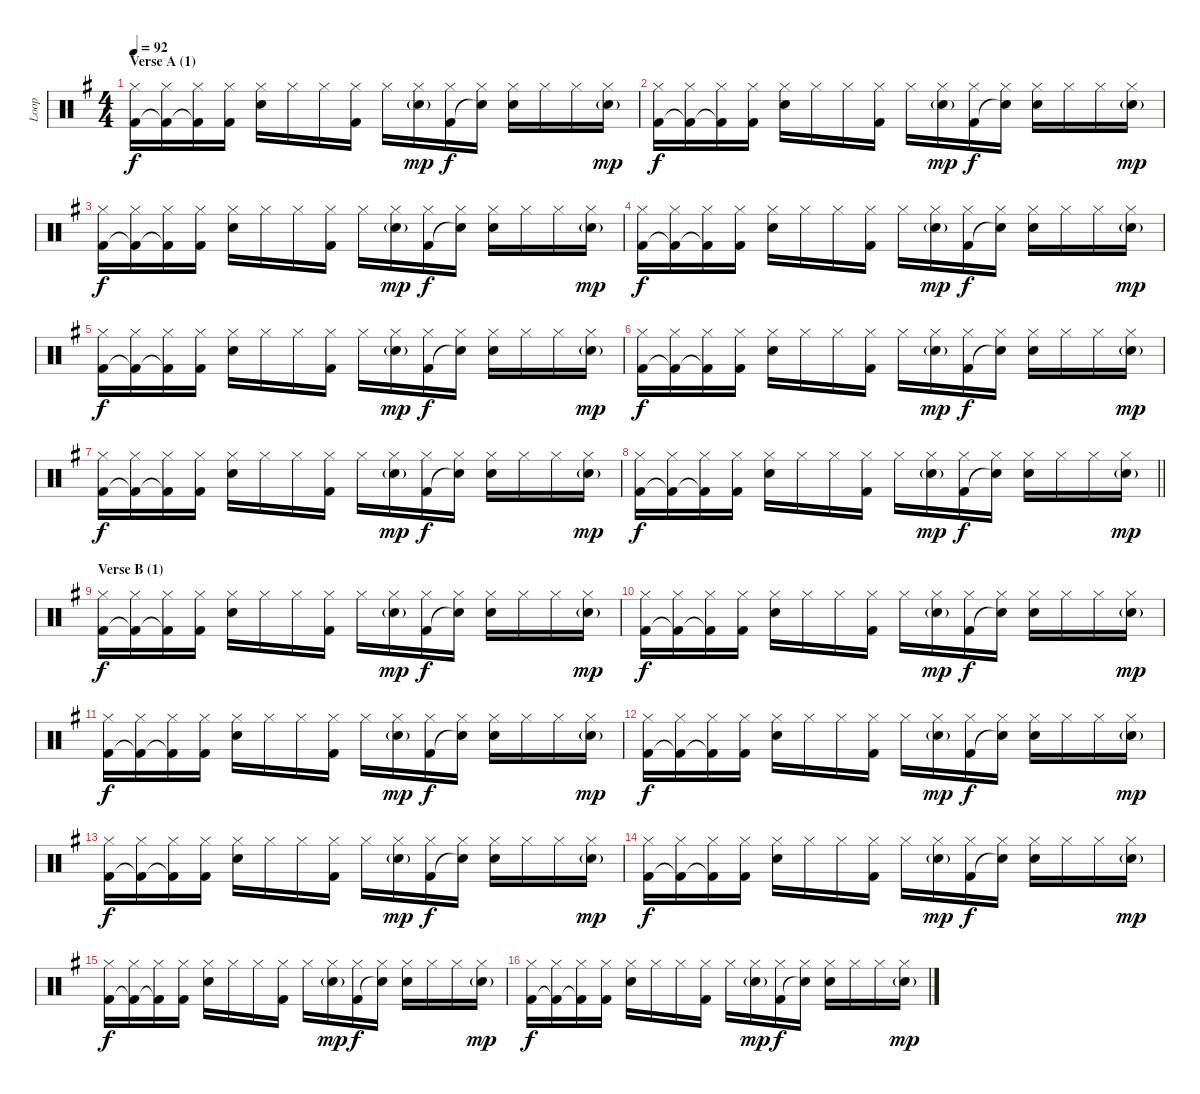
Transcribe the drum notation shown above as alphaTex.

\track ("Loop" "Loop") {instrument percussion}
\staff {score}
\articulation defaults
\ts (4 4)
\section ("" "Verse A (1)")
\tempo 92
\clef neutral
\ks g
("Hi-Hat (closed)" "Kick (hit) 2").16{dy f} ("Hi-Hat (closed)" "Kick (hit) 2"{t}).16 ("Hi-Hat (closed)" "Kick (hit) 2"{t}).16 ("Hi-Hat (closed)" "Kick (hit) 2").16 ("Hi-Hat (closed)" "Electric Snare (hit)").16 "Hi-Hat (closed)".16 "Hi-Hat (closed)".16 ("Hi-Hat (closed)" "Kick (hit) 2").16 "Hi-Hat (closed)".16 ("Hi-Hat (closed)" "Electric Snare (hit)"{g}).16{dy mp} ("Hi-Hat (closed)" "Kick (hit) 2").16{dy f} ("Hi-Hat (closed)" "Snare (hit)"{t}).16 ("Hi-Hat (closed)" "Electric Snare (hit)").16 "Hi-Hat (closed)".16 "Hi-Hat (closed)".16 ("Hi-Hat (closed)" "Electric Snare (hit)"{g}).16{dy mp} |
("Hi-Hat (closed)" "Kick (hit) 2").16{dy f} ("Hi-Hat (closed)" "Kick (hit) 2"{t}).16 ("Hi-Hat (closed)" "Kick (hit) 2"{t}).16 ("Hi-Hat (closed)" "Kick (hit) 2").16 ("Hi-Hat (closed)" "Electric Snare (hit)").16 "Hi-Hat (closed)".16 "Hi-Hat (closed)".16 ("Hi-Hat (closed)" "Kick (hit) 2").16 "Hi-Hat (closed)".16 ("Hi-Hat (closed)" "Electric Snare (hit)"{g}).16{dy mp} ("Hi-Hat (closed)" "Kick (hit) 2").16{dy f} ("Hi-Hat (closed)" "Snare (hit)"{t}).16 ("Hi-Hat (closed)" "Electric Snare (hit)").16 "Hi-Hat (closed)".16 "Hi-Hat (closed)".16 ("Hi-Hat (closed)" "Electric Snare (hit)"{g}).16{dy mp} |
("Hi-Hat (closed)" "Kick (hit) 2").16{dy f} ("Hi-Hat (closed)" "Kick (hit) 2"{t}).16 ("Hi-Hat (closed)" "Kick (hit) 2"{t}).16 ("Hi-Hat (closed)" "Kick (hit) 2").16 ("Hi-Hat (closed)" "Electric Snare (hit)").16 "Hi-Hat (closed)".16 "Hi-Hat (closed)".16 ("Hi-Hat (closed)" "Kick (hit) 2").16 "Hi-Hat (closed)".16 ("Hi-Hat (closed)" "Electric Snare (hit)"{g}).16{dy mp} ("Hi-Hat (closed)" "Kick (hit) 2").16{dy f} ("Hi-Hat (closed)" "Snare (hit)"{t}).16 ("Hi-Hat (closed)" "Electric Snare (hit)").16 "Hi-Hat (closed)".16 "Hi-Hat (closed)".16 ("Hi-Hat (closed)" "Electric Snare (hit)"{g}).16{dy mp} |
("Hi-Hat (closed)" "Kick (hit) 2").16{dy f} ("Hi-Hat (closed)" "Kick (hit) 2"{t}).16 ("Hi-Hat (closed)" "Kick (hit) 2"{t}).16 ("Hi-Hat (closed)" "Kick (hit) 2").16 ("Hi-Hat (closed)" "Electric Snare (hit)").16 "Hi-Hat (closed)".16 "Hi-Hat (closed)".16 ("Hi-Hat (closed)" "Kick (hit) 2").16 "Hi-Hat (closed)".16 ("Hi-Hat (closed)" "Electric Snare (hit)"{g}).16{dy mp} ("Hi-Hat (closed)" "Kick (hit) 2").16{dy f} ("Hi-Hat (closed)" "Snare (hit)"{t}).16 ("Hi-Hat (closed)" "Electric Snare (hit)").16 "Hi-Hat (closed)".16 "Hi-Hat (closed)".16 ("Hi-Hat (closed)" "Electric Snare (hit)"{g}).16{dy mp} |
("Hi-Hat (closed)" "Kick (hit) 2").16{dy f} ("Hi-Hat (closed)" "Kick (hit) 2"{t}).16 ("Hi-Hat (closed)" "Kick (hit) 2"{t}).16 ("Hi-Hat (closed)" "Kick (hit) 2").16 ("Hi-Hat (closed)" "Electric Snare (hit)").16 "Hi-Hat (closed)".16 "Hi-Hat (closed)".16 ("Hi-Hat (closed)" "Kick (hit) 2").16 "Hi-Hat (closed)".16 ("Hi-Hat (closed)" "Electric Snare (hit)"{g}).16{dy mp} ("Hi-Hat (closed)" "Kick (hit) 2").16{dy f} ("Hi-Hat (closed)" "Snare (hit)"{t}).16 ("Hi-Hat (closed)" "Electric Snare (hit)").16 "Hi-Hat (closed)".16 "Hi-Hat (closed)".16 ("Hi-Hat (closed)" "Electric Snare (hit)"{g}).16{dy mp} |
("Hi-Hat (closed)" "Kick (hit) 2").16{dy f} ("Hi-Hat (closed)" "Kick (hit) 2"{t}).16 ("Hi-Hat (closed)" "Kick (hit) 2"{t}).16 ("Hi-Hat (closed)" "Kick (hit) 2").16 ("Hi-Hat (closed)" "Electric Snare (hit)").16 "Hi-Hat (closed)".16 "Hi-Hat (closed)".16 ("Hi-Hat (closed)" "Kick (hit) 2").16 "Hi-Hat (closed)".16 ("Hi-Hat (closed)" "Electric Snare (hit)"{g}).16{dy mp} ("Hi-Hat (closed)" "Kick (hit) 2").16{dy f} ("Hi-Hat (closed)" "Snare (hit)"{t}).16 ("Hi-Hat (closed)" "Electric Snare (hit)").16 "Hi-Hat (closed)".16 "Hi-Hat (closed)".16 ("Hi-Hat (closed)" "Electric Snare (hit)"{g}).16{dy mp} |
("Hi-Hat (closed)" "Kick (hit) 2").16{dy f} ("Hi-Hat (closed)" "Kick (hit) 2"{t}).16 ("Hi-Hat (closed)" "Kick (hit) 2"{t}).16 ("Hi-Hat (closed)" "Kick (hit) 2").16 ("Hi-Hat (closed)" "Electric Snare (hit)").16 "Hi-Hat (closed)".16 "Hi-Hat (closed)".16 ("Hi-Hat (closed)" "Kick (hit) 2").16 "Hi-Hat (closed)".16 ("Hi-Hat (closed)" "Electric Snare (hit)"{g}).16{dy mp} ("Hi-Hat (closed)" "Kick (hit) 2").16{dy f} ("Hi-Hat (closed)" "Snare (hit)"{t}).16 ("Hi-Hat (closed)" "Electric Snare (hit)").16 "Hi-Hat (closed)".16 "Hi-Hat (closed)".16 ("Hi-Hat (closed)" "Electric Snare (hit)"{g}).16{dy mp} |
\barLineRight lightlight
("Hi-Hat (closed)" "Kick (hit) 2").16{dy f} ("Hi-Hat (closed)" "Kick (hit) 2"{t}).16 ("Hi-Hat (closed)" "Kick (hit) 2"{t}).16 ("Hi-Hat (closed)" "Kick (hit) 2").16 ("Hi-Hat (closed)" "Electric Snare (hit)").16 "Hi-Hat (closed)".16 "Hi-Hat (closed)".16 ("Hi-Hat (closed)" "Kick (hit) 2").16 "Hi-Hat (closed)".16 ("Hi-Hat (closed)" "Electric Snare (hit)"{g}).16{dy mp} ("Hi-Hat (closed)" "Kick (hit) 2").16{dy f} ("Hi-Hat (closed)" "Snare (hit)"{t}).16 ("Hi-Hat (closed)" "Electric Snare (hit)").16 "Hi-Hat (closed)".16 "Hi-Hat (closed)".16 ("Hi-Hat (closed)" "Electric Snare (hit)"{g}).16{dy mp} |
\section ("" "Verse B (1)")
("Hi-Hat (closed)" "Kick (hit) 2").16{dy f} ("Hi-Hat (closed)" "Kick (hit) 2"{t}).16 ("Hi-Hat (closed)" "Kick (hit) 2"{t}).16 ("Hi-Hat (closed)" "Kick (hit) 2").16 ("Hi-Hat (closed)" "Electric Snare (hit)").16 "Hi-Hat (closed)".16 "Hi-Hat (closed)".16 ("Hi-Hat (closed)" "Kick (hit) 2").16 "Hi-Hat (closed)".16 ("Hi-Hat (closed)" "Electric Snare (hit)"{g}).16{dy mp} ("Hi-Hat (closed)" "Kick (hit) 2").16{dy f} ("Hi-Hat (closed)" "Snare (hit)"{t}).16 ("Hi-Hat (closed)" "Electric Snare (hit)").16 "Hi-Hat (closed)".16 "Hi-Hat (closed)".16 ("Hi-Hat (closed)" "Electric Snare (hit)"{g}).16{dy mp} |
("Hi-Hat (closed)" "Kick (hit) 2").16{dy f} ("Hi-Hat (closed)" "Kick (hit) 2"{t}).16 ("Hi-Hat (closed)" "Kick (hit) 2"{t}).16 ("Hi-Hat (closed)" "Kick (hit) 2").16 ("Hi-Hat (closed)" "Electric Snare (hit)").16 "Hi-Hat (closed)".16 "Hi-Hat (closed)".16 ("Hi-Hat (closed)" "Kick (hit) 2").16 "Hi-Hat (closed)".16 ("Hi-Hat (closed)" "Electric Snare (hit)"{g}).16{dy mp} ("Hi-Hat (closed)" "Kick (hit) 2").16{dy f} ("Hi-Hat (closed)" "Snare (hit)"{t}).16 ("Hi-Hat (closed)" "Electric Snare (hit)").16 "Hi-Hat (closed)".16 "Hi-Hat (closed)".16 ("Hi-Hat (closed)" "Electric Snare (hit)"{g}).16{dy mp} |
("Hi-Hat (closed)" "Kick (hit) 2").16{dy f} ("Hi-Hat (closed)" "Kick (hit) 2"{t}).16 ("Hi-Hat (closed)" "Kick (hit) 2"{t}).16 ("Hi-Hat (closed)" "Kick (hit) 2").16 ("Hi-Hat (closed)" "Electric Snare (hit)").16 "Hi-Hat (closed)".16 "Hi-Hat (closed)".16 ("Hi-Hat (closed)" "Kick (hit) 2").16 "Hi-Hat (closed)".16 ("Hi-Hat (closed)" "Electric Snare (hit)"{g}).16{dy mp} ("Hi-Hat (closed)" "Kick (hit) 2").16{dy f} ("Hi-Hat (closed)" "Snare (hit)"{t}).16 ("Hi-Hat (closed)" "Electric Snare (hit)").16 "Hi-Hat (closed)".16 "Hi-Hat (closed)".16 ("Hi-Hat (closed)" "Electric Snare (hit)"{g}).16{dy mp} |
("Hi-Hat (closed)" "Kick (hit) 2").16{dy f} ("Hi-Hat (closed)" "Kick (hit) 2"{t}).16 ("Hi-Hat (closed)" "Kick (hit) 2"{t}).16 ("Hi-Hat (closed)" "Kick (hit) 2").16 ("Hi-Hat (closed)" "Electric Snare (hit)").16 "Hi-Hat (closed)".16 "Hi-Hat (closed)".16 ("Hi-Hat (closed)" "Kick (hit) 2").16 "Hi-Hat (closed)".16 ("Hi-Hat (closed)" "Electric Snare (hit)"{g}).16{dy mp} ("Hi-Hat (closed)" "Kick (hit) 2").16{dy f} ("Hi-Hat (closed)" "Snare (hit)"{t}).16 ("Hi-Hat (closed)" "Electric Snare (hit)").16 "Hi-Hat (closed)".16 "Hi-Hat (closed)".16 ("Hi-Hat (closed)" "Electric Snare (hit)"{g}).16{dy mp} |
("Hi-Hat (closed)" "Kick (hit) 2").16{dy f} ("Hi-Hat (closed)" "Kick (hit) 2"{t}).16 ("Hi-Hat (closed)" "Kick (hit) 2"{t}).16 ("Hi-Hat (closed)" "Kick (hit) 2").16 ("Hi-Hat (closed)" "Electric Snare (hit)").16 "Hi-Hat (closed)".16 "Hi-Hat (closed)".16 ("Hi-Hat (closed)" "Kick (hit) 2").16 "Hi-Hat (closed)".16 ("Hi-Hat (closed)" "Electric Snare (hit)"{g}).16{dy mp} ("Hi-Hat (closed)" "Kick (hit) 2").16{dy f} ("Hi-Hat (closed)" "Snare (hit)"{t}).16 ("Hi-Hat (closed)" "Electric Snare (hit)").16 "Hi-Hat (closed)".16 "Hi-Hat (closed)".16 ("Hi-Hat (closed)" "Electric Snare (hit)"{g}).16{dy mp} |
("Hi-Hat (closed)" "Kick (hit) 2").16{dy f} ("Hi-Hat (closed)" "Kick (hit) 2"{t}).16 ("Hi-Hat (closed)" "Kick (hit) 2"{t}).16 ("Hi-Hat (closed)" "Kick (hit) 2").16 ("Hi-Hat (closed)" "Electric Snare (hit)").16 "Hi-Hat (closed)".16 "Hi-Hat (closed)".16 ("Hi-Hat (closed)" "Kick (hit) 2").16 "Hi-Hat (closed)".16 ("Hi-Hat (closed)" "Electric Snare (hit)"{g}).16{dy mp} ("Hi-Hat (closed)" "Kick (hit) 2").16{dy f} ("Hi-Hat (closed)" "Snare (hit)"{t}).16 ("Hi-Hat (closed)" "Electric Snare (hit)").16 "Hi-Hat (closed)".16 "Hi-Hat (closed)".16 ("Hi-Hat (closed)" "Electric Snare (hit)"{g}).16{dy mp} |
("Hi-Hat (closed)" "Kick (hit) 2").16{dy f} ("Hi-Hat (closed)" "Kick (hit) 2"{t}).16 ("Hi-Hat (closed)" "Kick (hit) 2"{t}).16 ("Hi-Hat (closed)" "Kick (hit) 2").16 ("Hi-Hat (closed)" "Electric Snare (hit)").16 "Hi-Hat (closed)".16 "Hi-Hat (closed)".16 ("Hi-Hat (closed)" "Kick (hit) 2").16 "Hi-Hat (closed)".16 ("Hi-Hat (closed)" "Electric Snare (hit)"{g}).16{dy mp} ("Hi-Hat (closed)" "Kick (hit) 2").16{dy f} ("Hi-Hat (closed)" "Snare (hit)"{t}).16 ("Hi-Hat (closed)" "Electric Snare (hit)").16 "Hi-Hat (closed)".16 "Hi-Hat (closed)".16 ("Hi-Hat (closed)" "Electric Snare (hit)"{g}).16{dy mp} |
("Hi-Hat (closed)" "Kick (hit) 2").16{dy f} ("Hi-Hat (closed)" "Kick (hit) 2"{t}).16 ("Hi-Hat (closed)" "Kick (hit) 2"{t}).16 ("Hi-Hat (closed)" "Kick (hit) 2").16 ("Hi-Hat (closed)" "Electric Snare (hit)").16 "Hi-Hat (closed)".16 "Hi-Hat (closed)".16 ("Hi-Hat (closed)" "Kick (hit) 2").16 "Hi-Hat (closed)".16 ("Hi-Hat (closed)" "Electric Snare (hit)"{g}).16{dy mp} ("Hi-Hat (closed)" "Kick (hit) 2").16{dy f} ("Hi-Hat (closed)" "Snare (hit)"{t}).16 ("Hi-Hat (closed)" "Electric Snare (hit)").16 "Hi-Hat (closed)".16 "Hi-Hat (closed)".16 ("Hi-Hat (closed)" "Electric Snare (hit)"{g}).16{dy mp}
